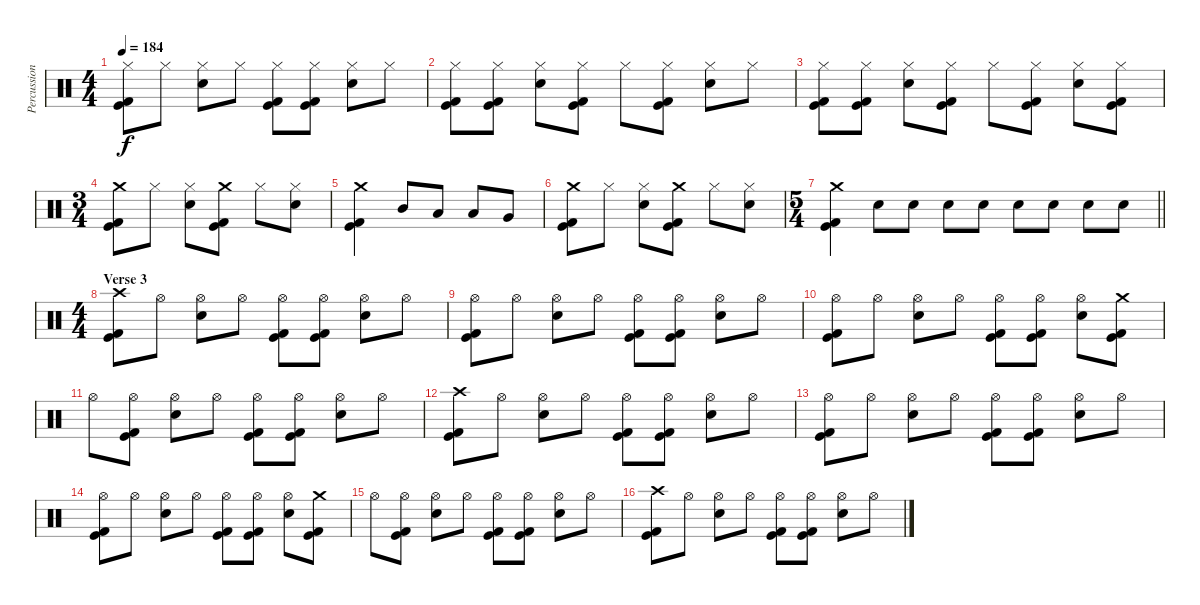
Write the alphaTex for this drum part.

\track ("Percussion" "Percussion") {instrument percussion}
\staff {score}
\articulation defaults
\ts (4 4)
\tempo 184
\clef neutral
\ks c
("Hi-Hat (closed)" "Kick (hit)" "Kick (hit) 2").8{dy f} "Hi-Hat (closed)".8 ("Hi-Hat (closed)" "Electric Snare (hit)").8 "Hi-Hat (closed)".8 ("Hi-Hat (closed)" "Kick (hit)" "Kick (hit) 2").8 ("Hi-Hat (closed)" "Kick (hit)" "Kick (hit) 2").8 ("Hi-Hat (closed)" "Electric Snare (hit)").8 "Hi-Hat (closed)".8 |
("Hi-Hat (closed)" "Kick (hit)" "Kick (hit) 2").8 ("Hi-Hat (closed)" "Kick (hit)" "Kick (hit) 2").8 ("Hi-Hat (closed)" "Electric Snare (hit)").8 ("Hi-Hat (closed)" "Kick (hit)" "Kick (hit) 2").8 "Hi-Hat (closed)".8 ("Hi-Hat (closed)" "Kick (hit)" "Kick (hit) 2").8 ("Hi-Hat (closed)" "Electric Snare (hit)").8 "Hi-Hat (closed)".8 |
("Hi-Hat (closed)" "Kick (hit)" "Kick (hit) 2").8 ("Hi-Hat (closed)" "Kick (hit)" "Kick (hit) 2").8 ("Hi-Hat (closed)" "Electric Snare (hit)").8 ("Hi-Hat (closed)" "Kick (hit)" "Kick (hit) 2").8 "Hi-Hat (closed)".8 ("Hi-Hat (closed)" "Kick (hit)" "Kick (hit) 2").8 ("Hi-Hat (closed)" "Electric Snare (hit)").8 ("Hi-Hat (closed)" "Kick (hit)" "Kick (hit) 2").8 |
\ts (3 4)
("Crash medium (hit)" "Kick (hit)" "Kick (hit) 2").8 "Hi-Hat (closed)".8 ("Hi-Hat (closed)" "Electric Snare (hit)").8 ("Crash medium (hit)" "Kick (hit)" "Kick (hit) 2").8 "Hi-Hat (closed)".8 ("Hi-Hat (closed)" "Electric Snare (hit)").8 |
("Crash medium (hit)" "Kick (hit)" "Kick (hit) 2").4 "Mid Tom (hit)".8 "Low Tom (hit)".8 "Low Tom (hit)".8 "Very Low Tom (hit)".8 |
("Crash medium (hit)" "Kick (hit)" "Kick (hit) 2").8 "Hi-Hat (closed)".8 ("Hi-Hat (closed)" "Electric Snare (hit)").8 ("Crash medium (hit)" "Kick (hit)" "Kick (hit) 2").8 "Hi-Hat (closed)".8 ("Hi-Hat (closed)" "Electric Snare (hit)").8 |
\ts (5 4)
\barLineRight lightlight
("Crash medium (hit)" "Kick (hit)" "Kick (hit) 2").4 "Electric Snare (hit)".8 "Electric Snare (hit)".8 "Electric Snare (hit)".8 "Electric Snare (hit)".8 "Electric Snare (hit)".8 "Electric Snare (hit)".8 "Electric Snare (hit)".8 "Electric Snare (hit)".8 |
\ts (4 4)
\section ("" "Verse 3")
("Crash high (hit)" "Kick (hit)" "Kick (hit) 2").8 "Hi-Hat (open)".8 ("Hi-Hat (open)" "Electric Snare (hit)").8 "Hi-Hat (open)".8 ("Hi-Hat (open)" "Kick (hit)" "Kick (hit) 2").8 ("Hi-Hat (open)" "Kick (hit)" "Kick (hit) 2").8 ("Hi-Hat (open)" "Electric Snare (hit)").8 "Hi-Hat (open)".8 |
("Hi-Hat (open)" "Kick (hit)" "Kick (hit) 2").8 "Hi-Hat (open)".8 ("Hi-Hat (open)" "Electric Snare (hit)").8 "Hi-Hat (open)".8 ("Hi-Hat (open)" "Kick (hit)" "Kick (hit) 2").8 ("Hi-Hat (open)" "Kick (hit)" "Kick (hit) 2").8 ("Hi-Hat (open)" "Electric Snare (hit)").8 "Hi-Hat (open)".8 |
("Hi-Hat (open)" "Kick (hit)" "Kick (hit) 2").8 "Hi-Hat (open)".8 ("Hi-Hat (open)" "Electric Snare (hit)").8 "Hi-Hat (open)".8 ("Hi-Hat (open)" "Kick (hit)" "Kick (hit) 2").8 ("Hi-Hat (open)" "Kick (hit)" "Kick (hit) 2").8 ("Hi-Hat (open)" "Electric Snare (hit)").8 ("Crash medium (hit)" "Kick (hit)" "Kick (hit) 2").8 |
"Hi-Hat (open)".8 ("Hi-Hat (open)" "Kick (hit)" "Kick (hit) 2").8 ("Hi-Hat (open)" "Electric Snare (hit)").8 "Hi-Hat (open)".8 ("Hi-Hat (open)" "Kick (hit)" "Kick (hit) 2").8 ("Hi-Hat (open)" "Kick (hit)" "Kick (hit) 2").8 ("Hi-Hat (open)" "Electric Snare (hit)").8 "Hi-Hat (open)".8 |
("Crash high (hit)" "Kick (hit)" "Kick (hit) 2").8 "Hi-Hat (open)".8 ("Hi-Hat (open)" "Electric Snare (hit)").8 "Hi-Hat (open)".8 ("Hi-Hat (open)" "Kick (hit)" "Kick (hit) 2").8 ("Hi-Hat (open)" "Kick (hit)" "Kick (hit) 2").8 ("Hi-Hat (open)" "Electric Snare (hit)").8 "Hi-Hat (open)".8 |
("Hi-Hat (open)" "Kick (hit)" "Kick (hit) 2").8 "Hi-Hat (open)".8 ("Hi-Hat (open)" "Electric Snare (hit)").8 "Hi-Hat (open)".8 ("Hi-Hat (open)" "Kick (hit)" "Kick (hit) 2").8 ("Hi-Hat (open)" "Kick (hit)" "Kick (hit) 2").8 ("Hi-Hat (open)" "Electric Snare (hit)").8 "Hi-Hat (open)".8 |
("Hi-Hat (open)" "Kick (hit)" "Kick (hit) 2").8 "Hi-Hat (open)".8 ("Hi-Hat (open)" "Electric Snare (hit)").8 "Hi-Hat (open)".8 ("Hi-Hat (open)" "Kick (hit)" "Kick (hit) 2").8 ("Hi-Hat (open)" "Kick (hit)" "Kick (hit) 2").8 ("Hi-Hat (open)" "Electric Snare (hit)").8 ("Crash medium (hit)" "Kick (hit)" "Kick (hit) 2").8 |
"Hi-Hat (open)".8 ("Hi-Hat (open)" "Kick (hit)" "Kick (hit) 2").8 ("Hi-Hat (open)" "Electric Snare (hit)").8 "Hi-Hat (open)".8 ("Hi-Hat (open)" "Kick (hit)" "Kick (hit) 2").8 ("Hi-Hat (open)" "Kick (hit)" "Kick (hit) 2").8 ("Hi-Hat (open)" "Electric Snare (hit)").8 "Hi-Hat (open)".8 |
("Crash high (hit)" "Kick (hit)" "Kick (hit) 2").8 "Hi-Hat (open)".8 ("Hi-Hat (open)" "Electric Snare (hit)").8 "Hi-Hat (open)".8 ("Hi-Hat (open)" "Kick (hit)" "Kick (hit) 2").8 ("Hi-Hat (open)" "Kick (hit)" "Kick (hit) 2").8 ("Hi-Hat (open)" "Electric Snare (hit)").8 "Hi-Hat (open)".8
